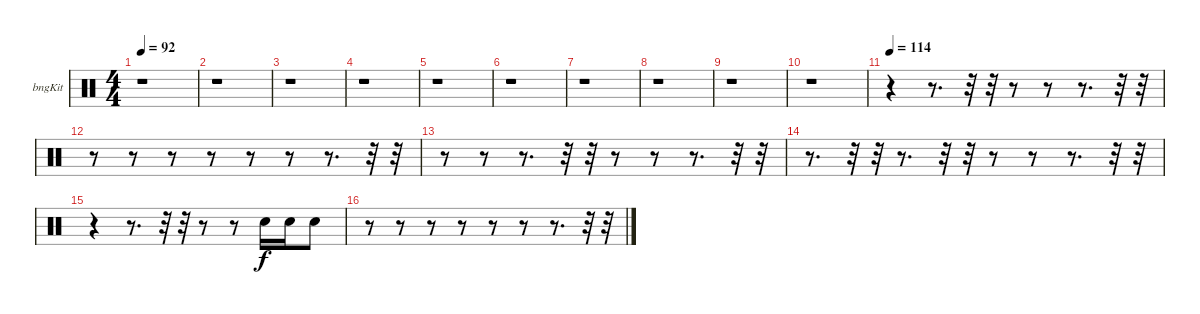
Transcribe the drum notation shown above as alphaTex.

\bracketExtendMode groupsimilarinstruments
\firstSystemTrackNameOrientation horizontal
\otherSystemsTrackNameOrientation horizontal
\track ("Bongos" "bngKit") {instrument percussion}
\staff {score}
\articulation defaults
\ts (4 4)
\tempo 92
\clef neutral
\ks c
r.1{dy f} |
r.1 |
r.1 |
r.1 |
r.1 |
r.1 |
r.1 |
r.1 |
r.1 |
r.1 |
\tempo 114
r.4 r.8{d} r.32 r.32 r.8 r.8 r.8{d} r.32 r.32 |
r.8 r.8 r.8 r.8 r.8 r.8 r.8{d} r.32 r.32 |
r.8 r.8 r.8{d} r.32 r.32 r.8 r.8 r.8{d} r.32 r.32 |
r.8{d} r.32 r.32 r.8{d} r.32 r.32 r.8 r.8 r.8{d} r.32 r.32 |
r.4 r.8{d} r.32 r.32 r.8 r.8 "Snare (hit) 2".16 "Snare (hit) 2".16 "Snare (hit) 2".8 |
r.8 r.8 r.8 r.8 r.8 r.8 r.8{d} r.32 r.32
